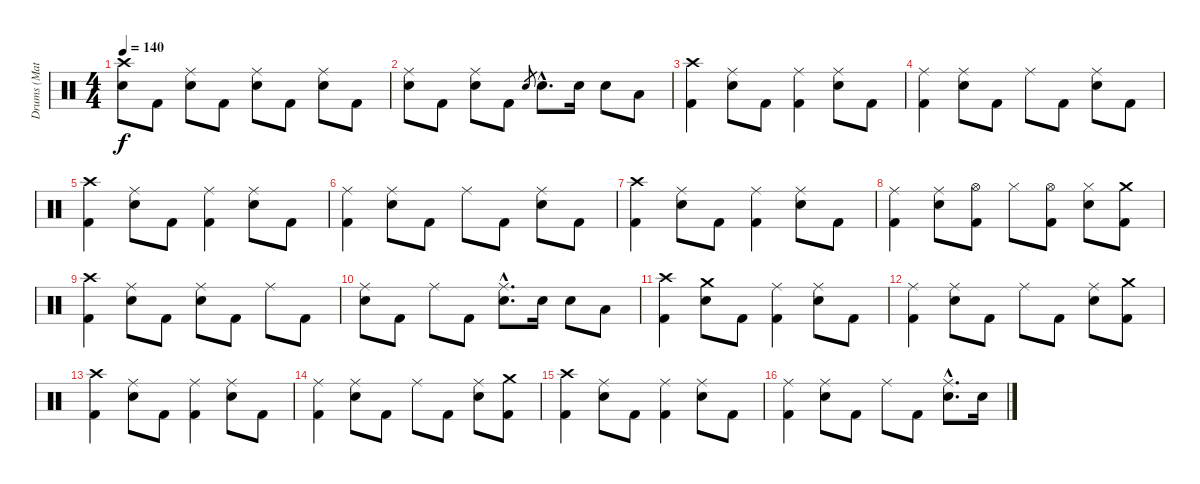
\track ("Drums (Matt)" "Drums (Mat") {instrument percussion}
\staff {score}
\articulation defaults
\ts (4 4)
\tempo 140
\clef neutral
\ks c
("Crash high (hit)" "Snare (hit) 2").8{dy f} "Kick (hit) 2".8 ("Ride (middle)" "Snare (hit) 2").8 "Kick (hit) 2".8 ("Ride (middle)" "Snare (hit) 2").8 "Kick (hit) 2".8 ("Ride (middle)" "Snare (hit) 2").8 "Kick (hit) 2".8 |
("Ride (middle)" "Snare (hit) 2").8 "Kick (hit) 2".8 ("Ride (middle)" "Snare (hit) 2").8 "Kick (hit) 2".8 "Snare (hit) 2".8{gr} "Snare (hit) 2"{hac}.8{d} "Snare (hit) 2".16 "Snare (hit) 2".8 "Low Tom (hit)".8 |
("Crash high (hit)" "Kick (hit) 2").4 ("Ride (middle)" "Snare (hit) 2").8 "Kick (hit) 2".8 ("Ride (middle)" "Kick (hit) 2").4 ("Ride (middle)" "Snare (hit) 2").8 "Kick (hit) 2".8 |
("Ride (middle)" "Kick (hit) 2").4 ("Ride (middle)" "Snare (hit) 2").8 "Kick (hit) 2".8 "Ride (middle)".8 "Kick (hit) 2".8 ("Ride (middle)" "Snare (hit) 2").8 "Kick (hit) 2".8 |
("Crash high (hit)" "Kick (hit) 2").4 ("Ride (middle)" "Snare (hit) 2").8 "Kick (hit) 2".8 ("Ride (middle)" "Kick (hit) 2").4 ("Ride (middle)" "Snare (hit) 2").8 "Kick (hit) 2".8 |
("Ride (middle)" "Kick (hit) 2").4 ("Ride (middle)" "Snare (hit) 2").8 "Kick (hit) 2".8 "Ride (middle)".8 "Kick (hit) 2".8 ("Ride (middle)" "Snare (hit) 2").8 "Kick (hit) 2".8 |
("Crash high (hit)" "Kick (hit) 2").4 ("Ride (middle)" "Snare (hit) 2").8 "Kick (hit) 2".8 ("Ride (middle)" "Kick (hit) 2").4 ("Ride (middle)" "Snare (hit) 2").8 "Kick (hit) 2".8 |
("Ride (middle)" "Kick (hit) 2").4 ("Ride (middle)" "Snare (hit) 2").8 ("Hi-Hat (open)" "Kick (hit) 2").8 "Hi-Hat (closed)".8 ("Hi-Hat (open)" "Kick (hit) 2").8 ("Hi-Hat (closed)" "Snare (hit) 2").8 ("Crash medium (hit)" "Kick (hit) 2").8 |
("Crash high (hit)" "Kick (hit) 2").4 ("Ride (middle)" "Snare (hit) 2").8 "Kick (hit) 2".8 ("Ride (middle)" "Snare (hit) 2").8 "Kick (hit) 2".8 "Ride (middle)".8 "Kick (hit) 2".8 |
("Ride (middle)" "Snare (hit) 2").8 "Kick (hit) 2".8 "Ride (middle)".8 "Kick (hit) 2".8 ("Ride (middle)"{hac} "Snare (hit) 2"{hac}).8{d} "Snare (hit) 2".16 "Snare (hit) 2".8 "Low Tom (hit)".8 |
("Crash high (hit)" "Kick (hit) 2").4 ("Crash medium (hit)" "Snare (hit) 2").8 "Kick (hit) 2".8 ("Ride (middle)" "Kick (hit) 2").4 ("Ride (middle)" "Snare (hit) 2").8 "Kick (hit) 2".8 |
("Ride (middle)" "Kick (hit) 2").4 ("Ride (middle)" "Snare (hit) 2").8 "Kick (hit) 2".8 "Ride (middle)".8 "Kick (hit) 2".8 ("Ride (middle)" "Snare (hit) 2").8 ("Crash medium (hit)" "Kick (hit) 2").8 |
("Crash high (hit)" "Kick (hit) 2").4 ("Ride (middle)" "Snare (hit) 2").8 "Kick (hit) 2".8 ("Ride (middle)" "Kick (hit) 2").4 ("Ride (middle)" "Snare (hit) 2").8 "Kick (hit) 2".8 |
("Ride (middle)" "Kick (hit) 2").4 ("Ride (middle)" "Snare (hit) 2").8 "Kick (hit) 2".8 "Ride (middle)".8 "Kick (hit) 2".8 ("Ride (middle)" "Snare (hit) 2").8 ("Crash medium (hit)" "Kick (hit) 2").8 |
("Crash high (hit)" "Kick (hit) 2").4 ("Ride (middle)" "Snare (hit) 2").8 "Kick (hit) 2".8 ("Ride (middle)" "Kick (hit) 2").4 ("Ride (middle)" "Snare (hit) 2").8 "Kick (hit) 2".8 |
("Ride (middle)" "Kick (hit) 2").4 ("Ride (middle)" "Snare (hit) 2").8 "Kick (hit) 2".8 "Ride (middle)".8 "Kick (hit) 2".8 ("Ride (middle)"{hac} "Snare (hit) 2"{hac}).8{d} "Snare (hit) 2".16
